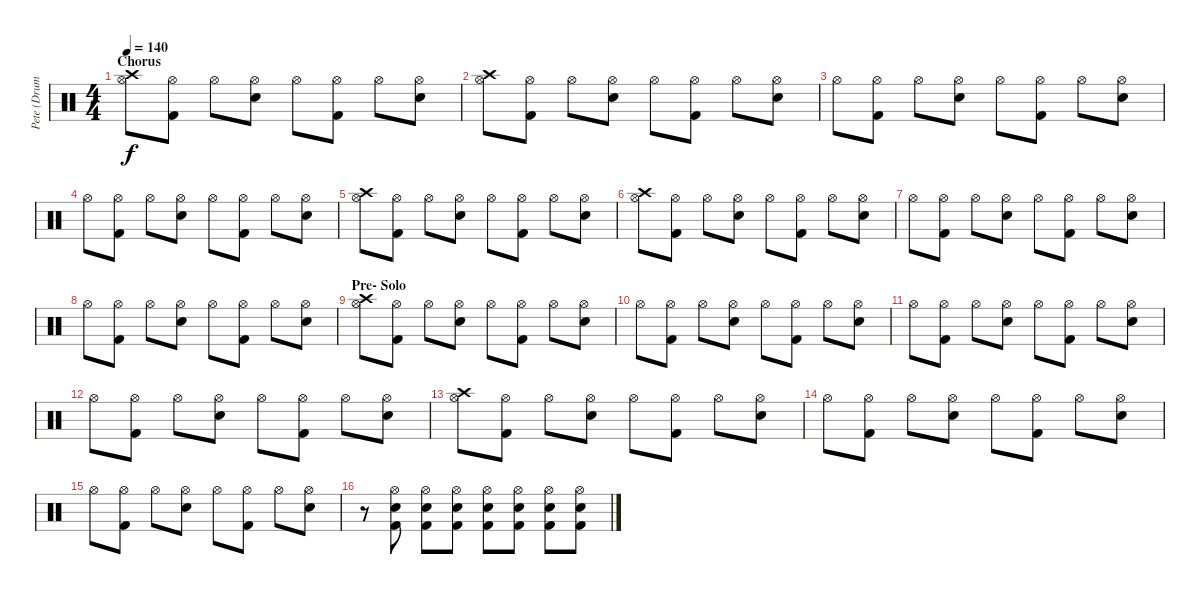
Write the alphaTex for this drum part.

\track ("Pete (Drums)" "Pete (Drum") {instrument percussion}
\staff {score}
\articulation defaults
\ts (4 4)
\section ("" "Chorus")
\tempo 140
\clef neutral
\ks c
("Hi-Hat (open)" "Crash high (hit)").8{dy f} ("Hi-Hat (open)" "Kick (hit) 2").8 "Hi-Hat (open)".8 ("Hi-Hat (open)" "Snare (hit) 2").8 "Hi-Hat (open)".8 ("Hi-Hat (open)" "Kick (hit) 2").8 "Hi-Hat (open)".8 ("Hi-Hat (open)" "Snare (hit) 2").8 |
("Hi-Hat (open)" "Crash high (hit)").8 ("Hi-Hat (open)" "Kick (hit) 2").8 "Hi-Hat (open)".8 ("Hi-Hat (open)" "Snare (hit) 2").8 "Hi-Hat (open)".8 ("Hi-Hat (open)" "Kick (hit) 2").8 "Hi-Hat (open)".8 ("Hi-Hat (open)" "Snare (hit) 2").8 |
"Hi-Hat (open)".8 ("Hi-Hat (open)" "Kick (hit) 2").8 "Hi-Hat (open)".8 ("Hi-Hat (open)" "Snare (hit) 2").8 "Hi-Hat (open)".8 ("Hi-Hat (open)" "Kick (hit) 2").8 "Hi-Hat (open)".8 ("Hi-Hat (open)" "Snare (hit) 2").8 |
"Hi-Hat (open)".8 ("Hi-Hat (open)" "Kick (hit) 2").8 "Hi-Hat (open)".8 ("Hi-Hat (open)" "Snare (hit) 2").8 "Hi-Hat (open)".8 ("Hi-Hat (open)" "Kick (hit) 2").8 "Hi-Hat (open)".8 ("Hi-Hat (open)" "Snare (hit) 2").8 |
("Hi-Hat (open)" "Crash high (hit)").8 ("Hi-Hat (open)" "Kick (hit) 2").8 "Hi-Hat (open)".8 ("Hi-Hat (open)" "Snare (hit) 2").8 "Hi-Hat (open)".8 ("Hi-Hat (open)" "Kick (hit) 2").8 "Hi-Hat (open)".8 ("Hi-Hat (open)" "Snare (hit) 2").8 |
("Hi-Hat (open)" "Crash high (hit)").8 ("Hi-Hat (open)" "Kick (hit) 2").8 "Hi-Hat (open)".8 ("Hi-Hat (open)" "Snare (hit) 2").8 "Hi-Hat (open)".8 ("Hi-Hat (open)" "Kick (hit) 2").8 "Hi-Hat (open)".8 ("Hi-Hat (open)" "Snare (hit) 2").8 |
"Hi-Hat (open)".8 ("Hi-Hat (open)" "Kick (hit) 2").8 "Hi-Hat (open)".8 ("Hi-Hat (open)" "Snare (hit) 2").8 "Hi-Hat (open)".8 ("Hi-Hat (open)" "Kick (hit) 2").8 "Hi-Hat (open)".8 ("Hi-Hat (open)" "Snare (hit) 2").8 |
"Hi-Hat (open)".8 ("Hi-Hat (open)" "Kick (hit) 2").8 "Hi-Hat (open)".8 ("Hi-Hat (open)" "Snare (hit) 2").8 "Hi-Hat (open)".8 ("Hi-Hat (open)" "Kick (hit) 2").8 "Hi-Hat (open)".8 ("Hi-Hat (open)" "Snare (hit) 2").8 |
\section ("" "Pre- Solo")
("Hi-Hat (open)" "Crash high (hit)").8 ("Hi-Hat (open)" "Kick (hit) 2").8 "Hi-Hat (open)".8 ("Hi-Hat (open)" "Snare (hit) 2").8 "Hi-Hat (open)".8 ("Hi-Hat (open)" "Kick (hit) 2").8 "Hi-Hat (open)".8 ("Hi-Hat (open)" "Snare (hit) 2").8 |
"Hi-Hat (open)".8 ("Hi-Hat (open)" "Kick (hit) 2").8 "Hi-Hat (open)".8 ("Hi-Hat (open)" "Snare (hit) 2").8 "Hi-Hat (open)".8 ("Hi-Hat (open)" "Kick (hit) 2").8 "Hi-Hat (open)".8 ("Hi-Hat (open)" "Snare (hit) 2").8 |
"Hi-Hat (open)".8 ("Hi-Hat (open)" "Kick (hit) 2").8 "Hi-Hat (open)".8 ("Hi-Hat (open)" "Snare (hit) 2").8 "Hi-Hat (open)".8 ("Hi-Hat (open)" "Kick (hit) 2").8 "Hi-Hat (open)".8 ("Hi-Hat (open)" "Snare (hit) 2").8 |
"Hi-Hat (open)".8 ("Hi-Hat (open)" "Kick (hit) 2").8 "Hi-Hat (open)".8 ("Hi-Hat (open)" "Snare (hit) 2").8 "Hi-Hat (open)".8 ("Hi-Hat (open)" "Kick (hit) 2").8 "Hi-Hat (open)".8 ("Hi-Hat (open)" "Snare (hit) 2").8 |
("Hi-Hat (open)" "Crash high (hit)").8 ("Hi-Hat (open)" "Kick (hit) 2").8 "Hi-Hat (open)".8 ("Hi-Hat (open)" "Snare (hit) 2").8 "Hi-Hat (open)".8 ("Hi-Hat (open)" "Kick (hit) 2").8 "Hi-Hat (open)".8 ("Hi-Hat (open)" "Snare (hit) 2").8 |
"Hi-Hat (open)".8 ("Hi-Hat (open)" "Kick (hit) 2").8 "Hi-Hat (open)".8 ("Hi-Hat (open)" "Snare (hit) 2").8 "Hi-Hat (open)".8 ("Hi-Hat (open)" "Kick (hit) 2").8 "Hi-Hat (open)".8 ("Hi-Hat (open)" "Snare (hit) 2").8 |
"Hi-Hat (open)".8 ("Hi-Hat (open)" "Kick (hit) 2").8 "Hi-Hat (open)".8 ("Hi-Hat (open)" "Snare (hit) 2").8 "Hi-Hat (open)".8 ("Hi-Hat (open)" "Kick (hit) 2").8 "Hi-Hat (open)".8 ("Hi-Hat (open)" "Snare (hit) 2").8 |
r.8 ("Snare (hit) 2" "Kick (hit) 2" "Hi-Hat (open)").8 ("Snare (hit) 2" "Kick (hit) 2" "Hi-Hat (open)").8 ("Snare (hit) 2" "Kick (hit) 2" "Hi-Hat (open)").8 ("Snare (hit) 2" "Kick (hit) 2" "Hi-Hat (open)").8 ("Snare (hit) 2" "Kick (hit) 2" "Hi-Hat (open)").8 ("Snare (hit) 2" "Kick (hit) 2" "Hi-Hat (open)").8 ("Snare (hit) 2" "Kick (hit) 2" "Hi-Hat (open)").8
